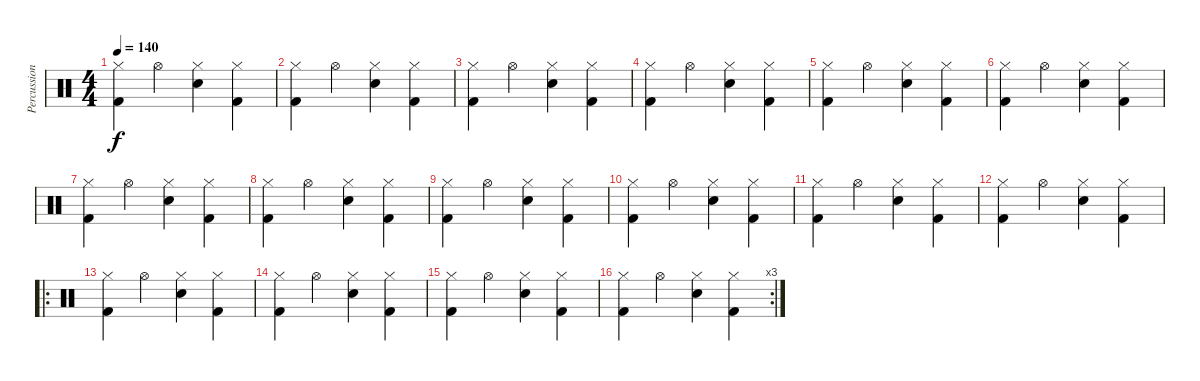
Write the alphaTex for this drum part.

\track ("Percussions" "Percussion") {instrument percussion}
\staff {score}
\articulation defaults
\ts (4 4)
\tempo 140
\clef neutral
\ks c
("Hi-Hat (closed)" "Kick (hit) 2").4{dy f} "Hi-Hat (open)".4 ("Hi-Hat (closed)" "Snare (hit) 2").4 ("Hi-Hat (closed)" "Kick (hit) 2").4 |
("Hi-Hat (closed)" "Kick (hit) 2").4 "Hi-Hat (open)".4 ("Hi-Hat (closed)" "Snare (hit) 2").4 ("Hi-Hat (closed)" "Kick (hit) 2").4 |
("Hi-Hat (closed)" "Kick (hit) 2").4 "Hi-Hat (open)".4 ("Hi-Hat (closed)" "Snare (hit) 2").4 ("Hi-Hat (closed)" "Kick (hit) 2").4 |
("Hi-Hat (closed)" "Kick (hit) 2").4 "Hi-Hat (open)".4 ("Hi-Hat (closed)" "Snare (hit) 2").4 ("Hi-Hat (closed)" "Kick (hit) 2").4 |
("Hi-Hat (closed)" "Kick (hit) 2").4 "Hi-Hat (open)".4 ("Hi-Hat (closed)" "Snare (hit) 2").4 ("Hi-Hat (closed)" "Kick (hit) 2").4 |
("Hi-Hat (closed)" "Kick (hit) 2").4 "Hi-Hat (open)".4 ("Hi-Hat (closed)" "Snare (hit) 2").4 ("Hi-Hat (closed)" "Kick (hit) 2").4 |
("Hi-Hat (closed)" "Kick (hit) 2").4 "Hi-Hat (open)".4 ("Hi-Hat (closed)" "Snare (hit) 2").4 ("Hi-Hat (closed)" "Kick (hit) 2").4 |
("Hi-Hat (closed)" "Kick (hit) 2").4 "Hi-Hat (open)".4 ("Hi-Hat (closed)" "Snare (hit) 2").4 ("Hi-Hat (closed)" "Kick (hit) 2").4 |
("Hi-Hat (closed)" "Kick (hit) 2").4 "Hi-Hat (open)".4 ("Hi-Hat (closed)" "Snare (hit) 2").4 ("Hi-Hat (closed)" "Kick (hit) 2").4 |
("Hi-Hat (closed)" "Kick (hit) 2").4 "Hi-Hat (open)".4 ("Hi-Hat (closed)" "Snare (hit) 2").4 ("Hi-Hat (closed)" "Kick (hit) 2").4 |
("Hi-Hat (closed)" "Kick (hit) 2").4 "Hi-Hat (open)".4 ("Hi-Hat (closed)" "Snare (hit) 2").4 ("Hi-Hat (closed)" "Kick (hit) 2").4 |
("Hi-Hat (closed)" "Kick (hit) 2").4 "Hi-Hat (open)".4 ("Hi-Hat (closed)" "Snare (hit) 2").4 ("Hi-Hat (closed)" "Kick (hit) 2").4 |
\ro
("Hi-Hat (closed)" "Kick (hit) 2").4 "Hi-Hat (open)".4 ("Hi-Hat (closed)" "Snare (hit) 2").4 ("Hi-Hat (closed)" "Kick (hit) 2").4 |
("Hi-Hat (closed)" "Kick (hit) 2").4 "Hi-Hat (open)".4 ("Hi-Hat (closed)" "Snare (hit) 2").4 ("Hi-Hat (closed)" "Kick (hit) 2").4 |
("Hi-Hat (closed)" "Kick (hit) 2").4 "Hi-Hat (open)".4 ("Hi-Hat (closed)" "Snare (hit) 2").4 ("Hi-Hat (closed)" "Kick (hit) 2").4 |
\rc 3
("Hi-Hat (closed)" "Kick (hit) 2").4 "Hi-Hat (open)".4 ("Hi-Hat (closed)" "Snare (hit) 2").4 ("Hi-Hat (closed)" "Kick (hit) 2").4
